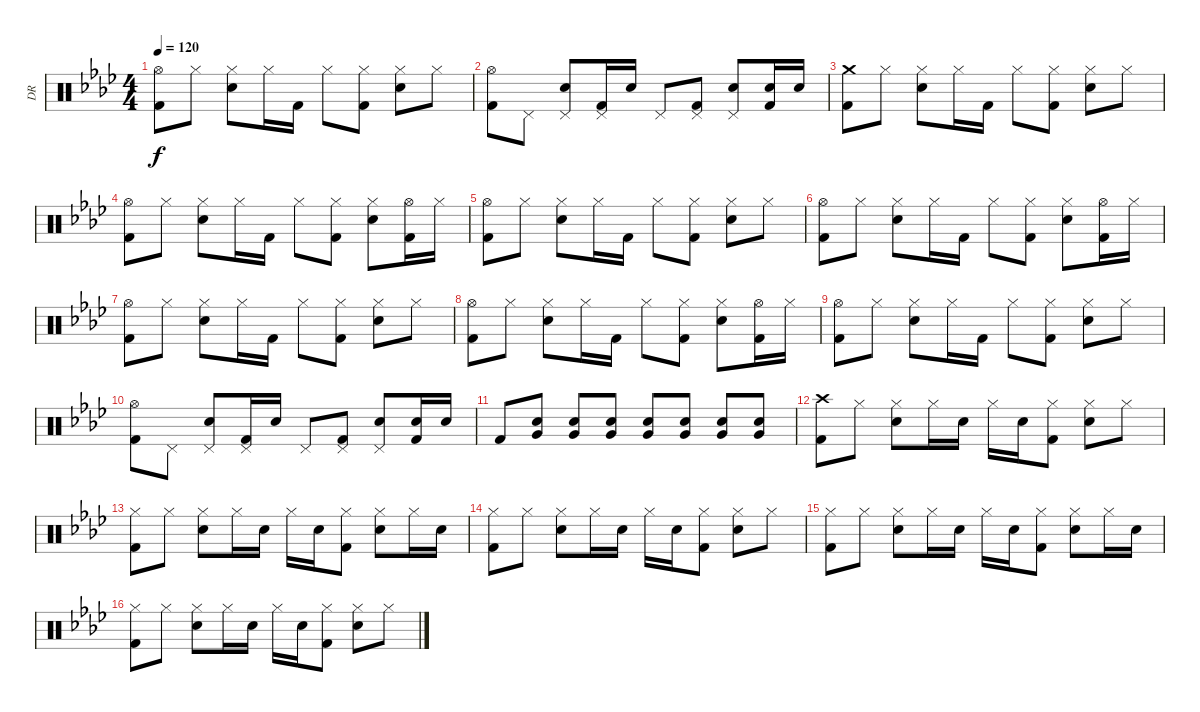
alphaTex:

\track ("DR" "DR") {instrument percussion}
\staff {score}
\articulation defaults
\ts (4 4)
\tempo 120
\clef neutral
\ks ab
("Hi-Hat (open)" "Kick (hit) 2").8{dy f} "Hi-Hat (closed)".8 ("Hi-Hat (closed)" "Electric Snare (hit)").8 "Hi-Hat (closed)".16 "Kick (hit) 2".16 "Hi-Hat (closed)".8 ("Hi-Hat (closed)" "Kick (hit) 2").8 ("Hi-Hat (closed)" "Electric Snare (hit)").8 "Hi-Hat (closed)".8 |
("Hi-Hat (open)" "Kick (hit) 2").8 "Pedal Hi-Hat (hit)".8 ("Pedal Hi-Hat (hit)" "Electric Snare (hit)").8 ("Pedal Hi-Hat (hit)" "Kick (hit) 2").16 "Electric Snare (hit)".16 "Pedal Hi-Hat (hit)".8 ("Pedal Hi-Hat (hit)" "Kick (hit) 2").8 ("Pedal Hi-Hat (hit)" "Electric Snare (hit)").8 ("Electric Snare (hit)" "Kick (hit) 2").16 "Electric Snare (hit)".16 |
("Crash medium (hit)" "Kick (hit) 2").8 "Hi-Hat (closed)".8 ("Hi-Hat (closed)" "Electric Snare (hit)").8 "Hi-Hat (closed)".16 "Kick (hit) 2".16 "Hi-Hat (closed)".8 ("Hi-Hat (closed)" "Kick (hit) 2").8 ("Hi-Hat (closed)" "Electric Snare (hit)").8 "Hi-Hat (closed)".8 |
("Hi-Hat (open)" "Kick (hit) 2").8 "Hi-Hat (closed)".8 ("Hi-Hat (closed)" "Electric Snare (hit)").8 "Hi-Hat (closed)".16 "Kick (hit) 2".16 "Hi-Hat (closed)".8 ("Hi-Hat (closed)" "Kick (hit) 2").8 ("Hi-Hat (closed)" "Electric Snare (hit)").8 ("Hi-Hat (open)" "Kick (hit) 2").16 "Hi-Hat (closed)".16 |
("Hi-Hat (open)" "Kick (hit) 2").8 "Hi-Hat (closed)".8 ("Hi-Hat (closed)" "Electric Snare (hit)").8 "Hi-Hat (closed)".16 "Kick (hit) 2".16 "Hi-Hat (closed)".8 ("Hi-Hat (closed)" "Kick (hit) 2").8 ("Hi-Hat (closed)" "Electric Snare (hit)").8 "Hi-Hat (closed)".8 |
("Hi-Hat (open)" "Kick (hit) 2").8 "Hi-Hat (closed)".8 ("Hi-Hat (closed)" "Electric Snare (hit)").8 "Hi-Hat (closed)".16 "Kick (hit) 2".16 "Hi-Hat (closed)".8 ("Hi-Hat (closed)" "Kick (hit) 2").8 ("Hi-Hat (closed)" "Electric Snare (hit)").8 ("Hi-Hat (open)" "Kick (hit) 2").16 "Hi-Hat (closed)".16 |
("Hi-Hat (open)" "Kick (hit) 2").8 "Hi-Hat (closed)".8 ("Hi-Hat (closed)" "Electric Snare (hit)").8 "Hi-Hat (closed)".16 "Kick (hit) 2".16 "Hi-Hat (closed)".8 ("Hi-Hat (closed)" "Kick (hit) 2").8 ("Hi-Hat (closed)" "Electric Snare (hit)").8 "Hi-Hat (closed)".8 |
("Hi-Hat (open)" "Kick (hit) 2").8 "Hi-Hat (closed)".8 ("Hi-Hat (closed)" "Electric Snare (hit)").8 "Hi-Hat (closed)".16 "Kick (hit) 2".16 "Hi-Hat (closed)".8 ("Hi-Hat (closed)" "Kick (hit) 2").8 ("Hi-Hat (closed)" "Electric Snare (hit)").8 ("Hi-Hat (open)" "Kick (hit) 2").16 "Hi-Hat (closed)".16 |
("Hi-Hat (open)" "Kick (hit) 2").8 "Hi-Hat (closed)".8 ("Hi-Hat (closed)" "Electric Snare (hit)").8 "Hi-Hat (closed)".16 "Kick (hit) 2".16 "Hi-Hat (closed)".8 ("Hi-Hat (closed)" "Kick (hit) 2").8 ("Hi-Hat (closed)" "Electric Snare (hit)").8 "Hi-Hat (closed)".8 |
("Hi-Hat (open)" "Kick (hit) 2").8 "Pedal Hi-Hat (hit)".8 ("Pedal Hi-Hat (hit)" "Electric Snare (hit)").8 ("Pedal Hi-Hat (hit)" "Kick (hit) 2").16 "Electric Snare (hit)".16 "Pedal Hi-Hat (hit)".8 ("Pedal Hi-Hat (hit)" "Kick (hit) 2").8 ("Pedal Hi-Hat (hit)" "Electric Snare (hit)").8 ("Electric Snare (hit)" "Kick (hit) 2").16 "Electric Snare (hit)".16 |
"Kick (hit) 2".8 ("Very Low Tom (hit)" "Electric Snare (hit)").8 ("Very Low Tom (hit)" "Electric Snare (hit)").8 ("Very Low Tom (hit)" "Electric Snare (hit)").8 ("Very Low Tom (hit)" "Electric Snare (hit)").8 ("Very Low Tom (hit)" "Electric Snare (hit)").8 ("Very Low Tom (hit)" "Electric Snare (hit)").8 ("Very Low Tom (hit)" "Electric Snare (hit)").8 |
("Crash high (hit)" "Kick (hit) 2").8 "Hi-Hat (closed)".8 ("Hi-Hat (closed)" "Electric Snare (hit)").8 "Hi-Hat (closed)".16 "Electric Snare (hit)".16 "Hi-Hat (closed)".16 "Electric Snare (hit)".16 ("Hi-Hat (closed)" "Kick (hit) 2").8 ("Hi-Hat (closed)" "Electric Snare (hit)").8 "Hi-Hat (closed)".8 |
("Hi-Hat (closed)" "Kick (hit) 2").8 "Hi-Hat (closed)".8 ("Hi-Hat (closed)" "Electric Snare (hit)").8 "Hi-Hat (closed)".16 "Electric Snare (hit)".16 "Hi-Hat (closed)".16 "Electric Snare (hit)".16 ("Hi-Hat (closed)" "Kick (hit) 2").8 ("Hi-Hat (closed)" "Electric Snare (hit)").8 "Hi-Hat (closed)".16 "Electric Snare (hit)".16 |
("Hi-Hat (closed)" "Kick (hit) 2").8 "Hi-Hat (closed)".8 ("Hi-Hat (closed)" "Electric Snare (hit)").8 "Hi-Hat (closed)".16 "Electric Snare (hit)".16 "Hi-Hat (closed)".16 "Electric Snare (hit)".16 ("Hi-Hat (closed)" "Kick (hit) 2").8 ("Hi-Hat (closed)" "Electric Snare (hit)").8 "Hi-Hat (closed)".8 |
("Hi-Hat (closed)" "Kick (hit) 2").8 "Hi-Hat (closed)".8 ("Hi-Hat (closed)" "Electric Snare (hit)").8 "Hi-Hat (closed)".16 "Electric Snare (hit)".16 "Hi-Hat (closed)".16 "Electric Snare (hit)".16 ("Hi-Hat (closed)" "Kick (hit) 2").8 ("Hi-Hat (closed)" "Electric Snare (hit)").8 "Hi-Hat (closed)".16 "Electric Snare (hit)".16 |
("Hi-Hat (closed)" "Kick (hit) 2").8 "Hi-Hat (closed)".8 ("Hi-Hat (closed)" "Electric Snare (hit)").8 "Hi-Hat (closed)".16 "Electric Snare (hit)".16 "Hi-Hat (closed)".16 "Electric Snare (hit)".16 ("Hi-Hat (closed)" "Kick (hit) 2").8 ("Hi-Hat (closed)" "Electric Snare (hit)").8 "Hi-Hat (closed)".8
